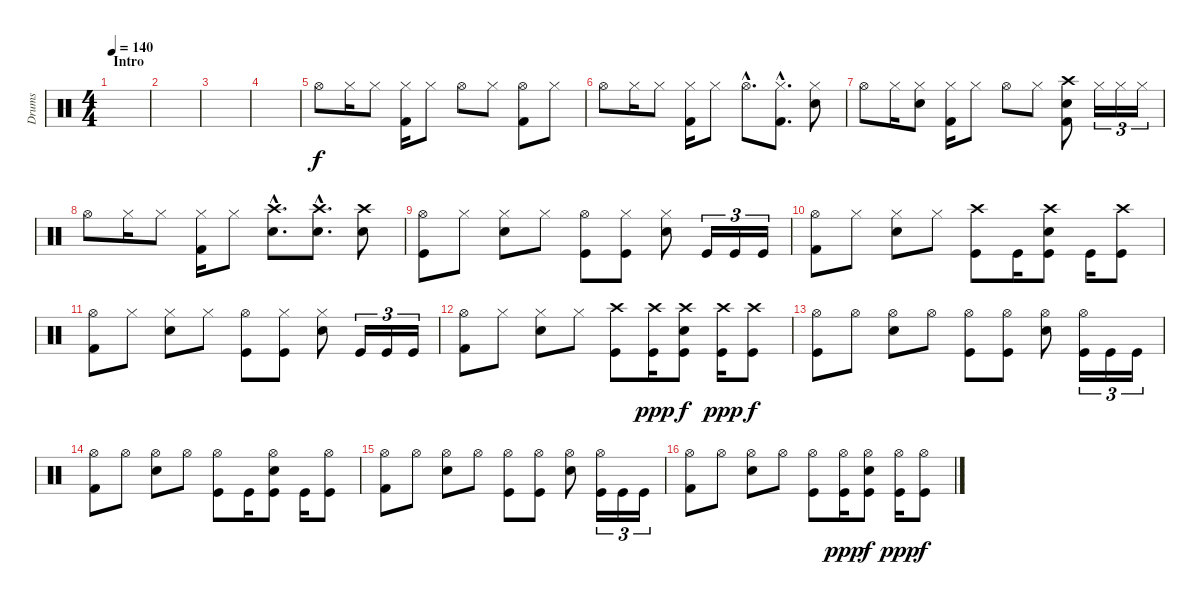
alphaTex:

\track ("Drums" "Drums") {instrument percussion}
\staff {score}
\articulation defaults
\ts (4 4)
\section ("" "Intro")
\tempo 140
\clef neutral
\ks c
|
|
|
|
"Hi-Hat (open)".8 "Hi-Hat (closed)".16 "Hi-Hat (closed)".8 ("Hi-Hat (closed)" "Kick (hit) 2").16 "Hi-Hat (closed)".8 "Hi-Hat (open)".8 "Hi-Hat (closed)".8 ("Hi-Hat (open)" "Kick (hit) 2").8 "Hi-Hat (closed)".8 |
"Hi-Hat (open)".8 "Hi-Hat (closed)".16 "Hi-Hat (closed)".8 ("Hi-Hat (closed)" "Kick (hit) 2").16 "Hi-Hat (closed)".8 "Hi-Hat (open)"{hac}.8{d} ("Hi-Hat (closed)"{hac} "Kick (hit) 2"{hac}).8{d} ("Hi-Hat (closed)" "Electric Snare (hit)").8 |
"Hi-Hat (open)".8 "Hi-Hat (closed)".16 ("Hi-Hat (closed)" "Electric Snare (hit)").8 ("Hi-Hat (closed)" "Kick (hit) 2").16 "Hi-Hat (closed)".8 "Hi-Hat (open)".8 "Hi-Hat (closed)".8 ("Crash high (hit)" "Electric Snare (hit)" "Kick (hit) 2").8 "Hi-Hat (closed)".16{tu (3 2)} "Hi-Hat (closed)".16{tu (3 2)} "Hi-Hat (closed)".16{tu (3 2)} |
"Hi-Hat (open)".8 "Hi-Hat (closed)".16 "Hi-Hat (closed)".8 ("Hi-Hat (closed)" "Kick (hit) 2").16 "Hi-Hat (closed)".8 ("Crash high (hit)"{hac} "Electric Snare (hit)"{hac}).8{d} ("Crash high (hit)"{hac} "Electric Snare (hit)"{hac}).8{d} ("Crash high (hit)" "Electric Snare (hit)").8 |
("Hi-Hat (open)" "Kick (hit)").8 "Hi-Hat (closed)".8 ("Hi-Hat (closed)" "Electric Snare (hit)").8 "Hi-Hat (closed)".8 ("Hi-Hat (open)" "Kick (hit)").8 ("Hi-Hat (closed)" "Kick (hit)").8 ("Hi-Hat (closed)" "Electric Snare (hit)").8 "Kick (hit)".16{tu (3 2)} "Kick (hit)".16{tu (3 2)} "Kick (hit)".16{tu (3 2)} |
("Hi-Hat (open)" "Kick (hit) 2").8 "Hi-Hat (closed)".8 ("Hi-Hat (closed)" "Electric Snare (hit)").8 "Hi-Hat (closed)".8 ("Kick (hit)" "Crash high (hit)").8 "Kick (hit)".16 ("Kick (hit)" "Crash high (hit)" "Electric Snare (hit)").8 "Kick (hit)".16 ("Kick (hit)" "Crash high (hit)").8 |
("Hi-Hat (open)" "Kick (hit) 2").8 "Hi-Hat (closed)".8 ("Hi-Hat (closed)" "Electric Snare (hit)").8 "Hi-Hat (closed)".8 ("Hi-Hat (open)" "Kick (hit)").8 ("Hi-Hat (closed)" "Kick (hit)").8 ("Hi-Hat (closed)" "Electric Snare (hit)").8 "Kick (hit)".16{tu (3 2)} "Kick (hit)".16{tu (3 2)} "Kick (hit)".16{tu (3 2)} |
("Hi-Hat (open)" "Kick (hit) 2").8 "Hi-Hat (closed)".8 ("Hi-Hat (closed)" "Electric Snare (hit)").8 "Hi-Hat (closed)".8 ("Kick (hit)" "Crash high (hit)").8 ("Kick (hit)" "Crash high (hit)").16{dy ppp} ("Kick (hit)" "Crash high (hit)" "Electric Snare (hit)").8{dy f} ("Kick (hit)" "Crash high (hit)").16{dy ppp} ("Kick (hit)" "Crash high (hit)").8{dy f} |
("Hi-Hat (open)" "Kick (hit)").8 "Hi-Hat (open)".8 ("Hi-Hat (open)" "Electric Snare (hit)").8 "Hi-Hat (open)".8 ("Hi-Hat (open)" "Kick (hit)").8 ("Hi-Hat (open)" "Kick (hit)").8 ("Hi-Hat (open)" "Electric Snare (hit)").8 ("Hi-Hat (open)" "Kick (hit)").16{tu (3 2)} "Kick (hit)".16{tu (3 2)} "Kick (hit)".16{tu (3 2)} |
("Hi-Hat (open)" "Kick (hit) 2").8 "Hi-Hat (open)".8 ("Hi-Hat (open)" "Electric Snare (hit)").8 "Hi-Hat (open)".8 ("Kick (hit)" "Hi-Hat (open)").8 "Kick (hit)".16 ("Kick (hit)" "Hi-Hat (open)" "Electric Snare (hit)").8 "Kick (hit)".16 ("Kick (hit)" "Hi-Hat (open)").8 |
("Hi-Hat (open)" "Kick (hit) 2").8 "Hi-Hat (open)".8 ("Hi-Hat (open)" "Electric Snare (hit)").8 "Hi-Hat (open)".8 ("Hi-Hat (open)" "Kick (hit)").8 ("Hi-Hat (open)" "Kick (hit)").8 ("Hi-Hat (open)" "Electric Snare (hit)").8 ("Hi-Hat (open)" "Kick (hit)").16{tu (3 2)} "Kick (hit)".16{tu (3 2)} "Kick (hit)".16{tu (3 2)} |
("Hi-Hat (open)" "Kick (hit) 2").8 "Hi-Hat (open)".8 ("Hi-Hat (open)" "Electric Snare (hit)").8 "Hi-Hat (open)".8 ("Kick (hit)" "Hi-Hat (open)").8 ("Kick (hit)" "Hi-Hat (open)").16{dy ppp} ("Kick (hit)" "Hi-Hat (open)" "Electric Snare (hit)").8{dy f} ("Kick (hit)" "Hi-Hat (open)").16{dy ppp} ("Kick (hit)" "Hi-Hat (open)").8{dy f}
